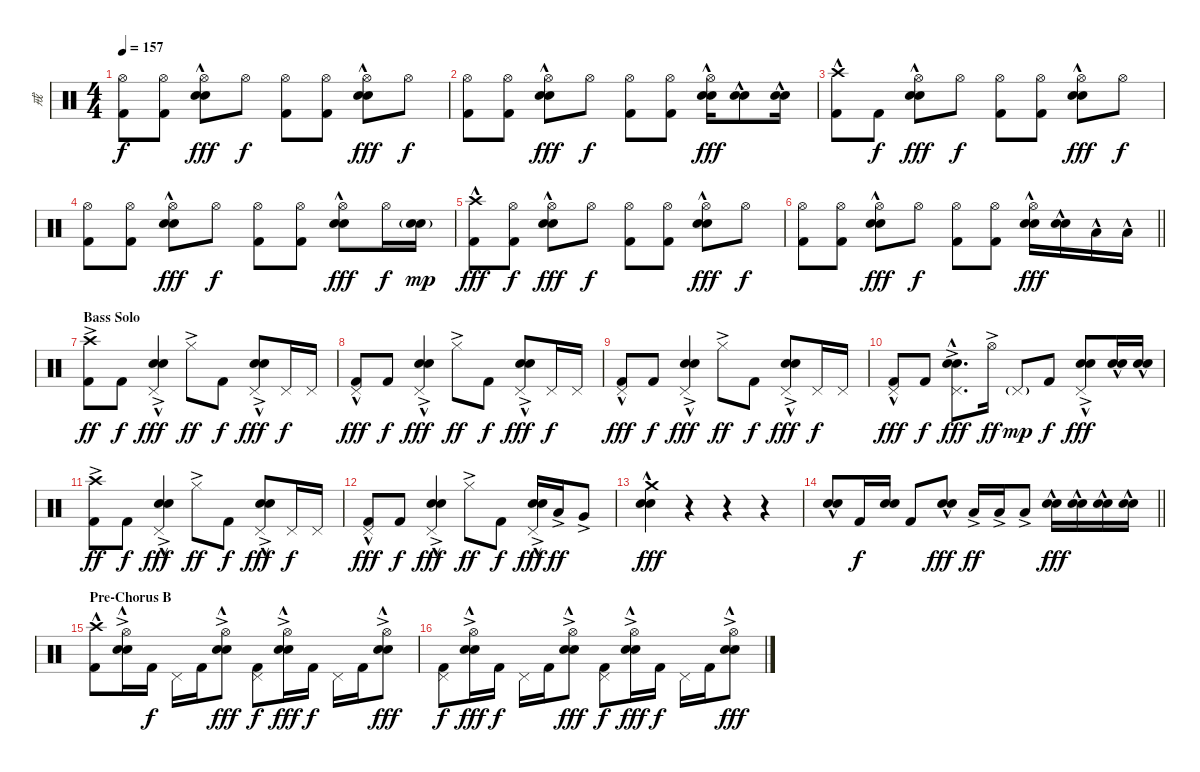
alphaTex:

\track ("戒" "戒") {instrument percussion}
\staff {score}
\articulation defaults
\ts (4 4)
\tempo 157
\clef neutral
\ks c
("Hi-Hat (open)" "Kick (hit) 2").8{dy f} ("Hi-Hat (open)" "Kick (hit) 2").8 ("Hi-Hat (open)" "Electric Snare (hit)"{hac} "Snare (hit) 2").8{dy fff} "Hi-Hat (open)".8{dy f} ("Hi-Hat (open)" "Kick (hit) 2").8 ("Hi-Hat (open)" "Kick (hit) 2").8 ("Hi-Hat (open)" "Electric Snare (hit)"{hac} "Snare (hit) 2").8{dy fff} "Hi-Hat (open)".8{dy f} |
("Hi-Hat (open)" "Kick (hit) 2").8 ("Hi-Hat (open)" "Kick (hit) 2").8 ("Hi-Hat (open)" "Electric Snare (hit)"{hac} "Snare (hit) 2").8{dy fff} "Hi-Hat (open)".8{dy f} ("Hi-Hat (open)" "Kick (hit) 2").8 ("Hi-Hat (open)" "Kick (hit) 2").8 ("Hi-Hat (open)" "Electric Snare (hit)"{hac} "Snare (hit) 2").16{dy fff} ("Electric Snare (hit)"{hac} "Snare (hit) 2").8 ("Electric Snare (hit)"{hac} "Snare (hit) 2").16 |
("Crash high (hit)"{hac} "Kick (hit) 2").8 "Kick (hit) 2".8{dy f} ("Hi-Hat (open)" "Electric Snare (hit)"{hac} "Snare (hit) 2").8{dy fff} "Hi-Hat (open)".8{dy f} ("Hi-Hat (open)" "Kick (hit) 2").8 ("Hi-Hat (open)" "Kick (hit) 2").8 ("Hi-Hat (open)" "Electric Snare (hit)"{hac} "Snare (hit) 2").8{dy fff} "Hi-Hat (open)".8{dy f} |
("Hi-Hat (open)" "Kick (hit) 2").8 ("Hi-Hat (open)" "Kick (hit) 2").8 ("Hi-Hat (open)" "Electric Snare (hit)"{hac} "Snare (hit) 2").8{dy fff} "Hi-Hat (open)".8{dy f} ("Hi-Hat (open)" "Kick (hit) 2").8 ("Hi-Hat (open)" "Kick (hit) 2").8 ("Hi-Hat (open)" "Electric Snare (hit)"{hac} "Snare (hit) 2").8{dy fff} "Hi-Hat (open)".16{dy f} ("Electric Snare (hit)"{g} "Snare (hit) 2"{g}).16{dy mp} |
("Crash high (hit)"{hac} "Kick (hit) 2").8{dy fff} ("Hi-Hat (open)" "Kick (hit) 2").8{dy f} ("Hi-Hat (open)" "Electric Snare (hit)"{hac} "Snare (hit) 2").8{dy fff} "Hi-Hat (open)".8{dy f} ("Hi-Hat (open)" "Kick (hit) 2").8 ("Hi-Hat (open)" "Kick (hit) 2").8 ("Hi-Hat (open)" "Electric Snare (hit)"{hac} "Snare (hit) 2").8{dy fff} "Hi-Hat (open)".8{dy f} |
\barLineRight lightlight
("Hi-Hat (open)" "Kick (hit) 2").8 ("Hi-Hat (open)" "Kick (hit) 2").8 ("Hi-Hat (open)" "Electric Snare (hit)"{hac} "Snare (hit) 2").8{dy fff} "Hi-Hat (open)".8{dy f} ("Hi-Hat (open)" "Kick (hit) 2").8 ("Hi-Hat (open)" "Kick (hit) 2").8 ("Hi-Hat (open)" "Electric Snare (hit)"{hac} "Snare (hit) 2").16{dy fff} ("Electric Snare (hit)"{hac} "Snare (hit) 2").16 "Low Tom (hit)"{hac}.16 "Low Tom (hit)"{hac}.16 |
\section ("" "Bass Solo")
("Crash high (hit)"{ac} "Kick (hit) 2").8{dy ff} "Kick (hit) 2".8{dy f} ("Pedal Hi-Hat (hit)"{ac} "Electric Snare (hit)"{hac} "Snare (hit) 2").4{dy fff} "Hi-Hat (closed)"{ac}.8{dy ff} "Kick (hit) 2".8{dy f} ("Pedal Hi-Hat (hit)"{ac} "Electric Snare (hit)"{hac} "Snare (hit) 2").8{dy fff} "Pedal Hi-Hat (hit)".16{dy f} "Pedal Hi-Hat (hit)".16 |
("Pedal Hi-Hat (hit)"{hac} "Kick (hit) 2").8{dy fff} "Kick (hit) 2".8{dy f} ("Pedal Hi-Hat (hit)"{ac} "Electric Snare (hit)"{hac} "Snare (hit) 2").4{dy fff} "Hi-Hat (closed)"{ac}.8{dy ff} "Kick (hit) 2".8{dy f} ("Pedal Hi-Hat (hit)"{ac} "Electric Snare (hit)"{hac} "Snare (hit) 2").8{dy fff} "Pedal Hi-Hat (hit)".16{dy f} "Pedal Hi-Hat (hit)".16 |
("Pedal Hi-Hat (hit)"{hac} "Kick (hit) 2").8{dy fff} "Kick (hit) 2".8{dy f} ("Pedal Hi-Hat (hit)"{ac} "Electric Snare (hit)"{hac} "Snare (hit) 2").4{dy fff} "Hi-Hat (closed)"{ac}.8{dy ff} "Kick (hit) 2".8{dy f} ("Pedal Hi-Hat (hit)"{ac} "Electric Snare (hit)"{hac} "Snare (hit) 2").8{dy fff} "Pedal Hi-Hat (hit)".16{dy f} "Pedal Hi-Hat (hit)".16 |
("Pedal Hi-Hat (hit)"{hac} "Kick (hit) 2").8{dy fff} "Kick (hit) 2".8{dy f} ("Pedal Hi-Hat (hit)"{ac} "Electric Snare (hit)"{hac} "Snare (hit) 2").8{d dy fff} "Hi-Hat (open)"{ac}.16{dy ff} "Pedal Hi-Hat (hit)"{g}.8{dy mp} "Kick (hit) 2".8{dy f} ("Pedal Hi-Hat (hit)"{ac} "Electric Snare (hit)"{hac} "Snare (hit) 2").8{dy fff} ("Electric Snare (hit)"{hac} "Snare (hit) 2").16 ("Electric Snare (hit)"{hac} "Snare (hit) 2").16 |
("Crash high (hit)"{ac} "Kick (hit) 2").8{dy ff} "Kick (hit) 2".8{dy f} ("Pedal Hi-Hat (hit)"{ac} "Electric Snare (hit)"{hac} "Snare (hit) 2").4{dy fff} "Hi-Hat (closed)"{ac}.8{dy ff} "Kick (hit) 2".8{dy f} ("Pedal Hi-Hat (hit)"{ac} "Electric Snare (hit)"{hac} "Snare (hit) 2").8{dy fff} "Pedal Hi-Hat (hit)".16{dy f} "Pedal Hi-Hat (hit)".16 |
("Pedal Hi-Hat (hit)"{hac} "Kick (hit) 2").8{dy fff} "Kick (hit) 2".8{dy f} ("Pedal Hi-Hat (hit)"{ac} "Electric Snare (hit)"{hac} "Snare (hit) 2").4{dy fff} "Hi-Hat (closed)"{ac}.8{dy ff} "Kick (hit) 2".8{dy f} ("Pedal Hi-Hat (hit)"{ac} "Electric Snare (hit)"{hac} "Snare (hit) 2").16{dy fff} "Low Tom (hit)"{ac}.16{dy ff} "Very Low Tom (hit)"{ac}.8 |
("Crash medium (hit)" "Electric Snare (hit)"{hac} "Snare (hit) 2").4{dy fff} r.4 r.4 r.4 |
\barLineRight lightlight
("Electric Snare (hit)"{hac} "Snare (hit) 2").8 "Kick (hit) 2".16{dy f} ("Electric Snare (hit)" "Snare (hit) 2").16 "Kick (hit) 2".8 ("Electric Snare (hit)"{hac} "Snare (hit) 2").8{dy fff} "Low Tom (hit)"{ac}.16{dy ff} "Low Tom (hit)"{ac}.16 "Low Tom (hit)"{ac}.8 ("Electric Snare (hit)"{hac} "Snare (hit) 2").16{dy fff} ("Electric Snare (hit)"{hac} "Snare (hit) 2").16 ("Electric Snare (hit)"{hac} "Snare (hit) 2").16 ("Electric Snare (hit)"{hac} "Snare (hit) 2").16 |
\section ("" "Pre-Chorus B")
("Crash high (hit)"{hac} "Kick (hit) 2").8 ("Hi-Hat (open)"{ac} "Electric Snare (hit)"{hac} "Snare (hit) 2").16 "Kick (hit) 2".16{dy f} "Pedal Hi-Hat (hit)".16 "Kick (hit) 2".16 ("Hi-Hat (open)"{ac} "Electric Snare (hit)"{hac} "Snare (hit) 2").8{dy fff} ("Pedal Hi-Hat (hit)" "Kick (hit) 2").8{dy f} ("Hi-Hat (open)"{ac} "Electric Snare (hit)"{hac} "Snare (hit) 2").16{dy fff} "Kick (hit) 2".16{dy f} "Pedal Hi-Hat (hit)".16 "Kick (hit) 2".16 ("Hi-Hat (open)"{ac} "Electric Snare (hit)"{hac} "Snare (hit) 2").8{dy fff} |
("Pedal Hi-Hat (hit)" "Kick (hit) 2").8{dy f} ("Hi-Hat (open)"{ac} "Electric Snare (hit)"{hac} "Snare (hit) 2").16{dy fff} "Kick (hit) 2".16{dy f} "Pedal Hi-Hat (hit)".16 "Kick (hit) 2".16 ("Hi-Hat (open)"{ac} "Electric Snare (hit)"{hac} "Snare (hit) 2").8{dy fff} ("Pedal Hi-Hat (hit)" "Kick (hit) 2").8{dy f} ("Hi-Hat (open)"{ac} "Electric Snare (hit)"{hac} "Snare (hit) 2").16{dy fff} "Kick (hit) 2".16{dy f} "Pedal Hi-Hat (hit)".16 "Kick (hit) 2".16 ("Hi-Hat (open)"{ac} "Electric Snare (hit)"{hac} "Snare (hit) 2").8{dy fff}
